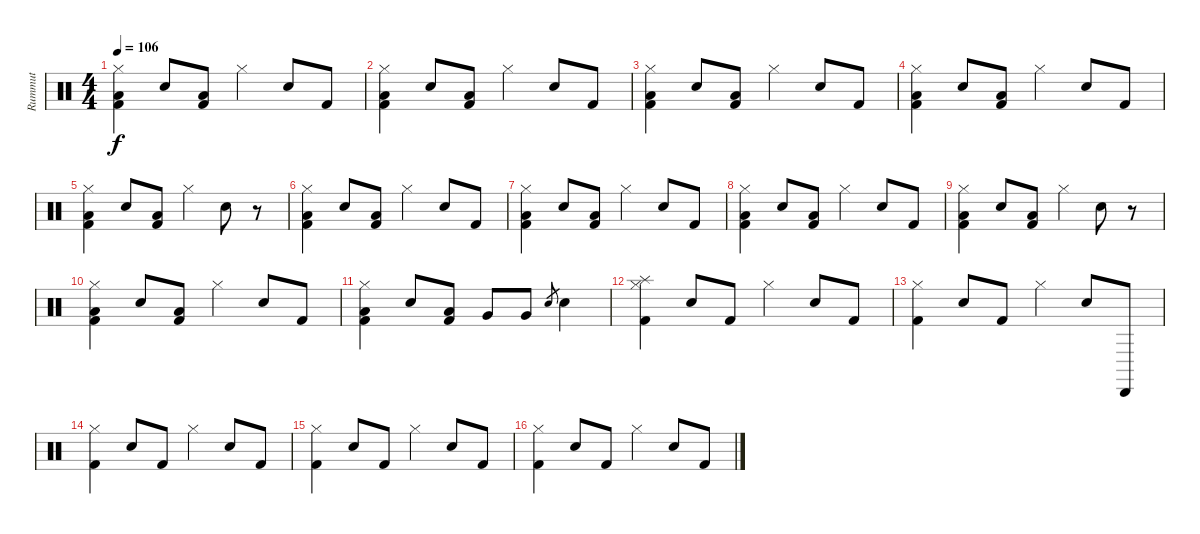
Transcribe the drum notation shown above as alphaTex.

\track ("Rummut" "Rummut") {instrument percussion}
\staff {score}
\articulation defaults
\ts (4 4)
\tempo 106
\clef neutral
\ks c
("Hi-Hat (closed)" "Low Tom (hit)" "Kick (hit) 2").4{dy f} "Electric Snare (hit)".8 ("Low Tom (hit)" "Kick (hit) 2").8 "Hi-Hat (closed)".4 "Electric Snare (hit)".8 "Kick (hit) 2".8 |
("Hi-Hat (closed)" "Low Tom (hit)" "Kick (hit) 2").4 "Electric Snare (hit)".8 ("Low Tom (hit)" "Kick (hit) 2").8 "Hi-Hat (closed)".4 "Electric Snare (hit)".8 "Kick (hit) 2".8 |
("Hi-Hat (closed)" "Low Tom (hit)" "Kick (hit) 2").4 "Electric Snare (hit)".8 ("Low Tom (hit)" "Kick (hit) 2").8 "Hi-Hat (closed)".4 "Electric Snare (hit)".8 "Kick (hit) 2".8 |
("Hi-Hat (closed)" "Low Tom (hit)" "Kick (hit) 2").4 "Electric Snare (hit)".8 ("Low Tom (hit)" "Kick (hit) 2").8 "Hi-Hat (closed)".4 "Electric Snare (hit)".8 "Kick (hit) 2".8 |
("Hi-Hat (closed)" "Low Tom (hit)" "Kick (hit) 2").4 "Electric Snare (hit)".8 ("Low Tom (hit)" "Kick (hit) 2").8 "Hi-Hat (closed)".4 "Electric Snare (hit)".8 r.8 |
("Hi-Hat (closed)" "Low Tom (hit)" "Kick (hit) 2").4 "Electric Snare (hit)".8 ("Low Tom (hit)" "Kick (hit) 2").8 "Hi-Hat (closed)".4 "Electric Snare (hit)".8 "Kick (hit) 2".8 |
("Hi-Hat (closed)" "Low Tom (hit)" "Kick (hit) 2").4 "Electric Snare (hit)".8 ("Low Tom (hit)" "Kick (hit) 2").8 "Hi-Hat (closed)".4 "Electric Snare (hit)".8 "Kick (hit) 2".8 |
("Hi-Hat (closed)" "Low Tom (hit)" "Kick (hit) 2").4 "Electric Snare (hit)".8 ("Low Tom (hit)" "Kick (hit) 2").8 "Hi-Hat (closed)".4 "Electric Snare (hit)".8 "Kick (hit) 2".8 |
("Hi-Hat (closed)" "Low Tom (hit)" "Kick (hit) 2").4 "Electric Snare (hit)".8 ("Low Tom (hit)" "Kick (hit) 2").8 "Hi-Hat (closed)".4 "Electric Snare (hit)".8 r.8 |
("Hi-Hat (closed)" "Low Tom (hit)" "Kick (hit) 2").4 "Electric Snare (hit)".8 ("Low Tom (hit)" "Kick (hit) 2").8 "Hi-Hat (closed)".4 "Electric Snare (hit)".8 "Kick (hit) 2".8 |
("Hi-Hat (closed)" "Low Tom (hit)" "Kick (hit) 2").4 "Electric Snare (hit)".8 ("Low Tom (hit)" "Kick (hit) 2").8 "Very Low Tom (hit)".8 "Very Low Tom (hit)".8 "Electric Snare (hit)".8{gr} "Electric Snare (hit)".4 |
("Splash (hit)" "Hi-Hat (closed)" "Kick (hit) 2").4 "Electric Snare (hit)".8 "Kick (hit) 2".8 "Hi-Hat (closed)".4 "Electric Snare (hit)".8 "Kick (hit) 2".8 |
("Hi-Hat (closed)" "Kick (hit) 2").4 "Electric Snare (hit)".8 "Kick (hit) 2".8 "Hi-Hat (closed)".4 "Electric Snare (hit)".8 "Cabasa (hit)".8 |
("Hi-Hat (closed)" "Kick (hit) 2").4 "Electric Snare (hit)".8 "Kick (hit) 2".8 "Hi-Hat (closed)".4 "Electric Snare (hit)".8 "Kick (hit) 2".8 |
("Hi-Hat (closed)" "Kick (hit) 2").4 "Electric Snare (hit)".8 "Kick (hit) 2".8 "Hi-Hat (closed)".4 "Electric Snare (hit)".8 "Kick (hit) 2".8 |
("Hi-Hat (closed)" "Kick (hit) 2").4 "Electric Snare (hit)".8 "Kick (hit) 2".8 "Hi-Hat (closed)".4 "Electric Snare (hit)".8 "Kick (hit) 2".8
